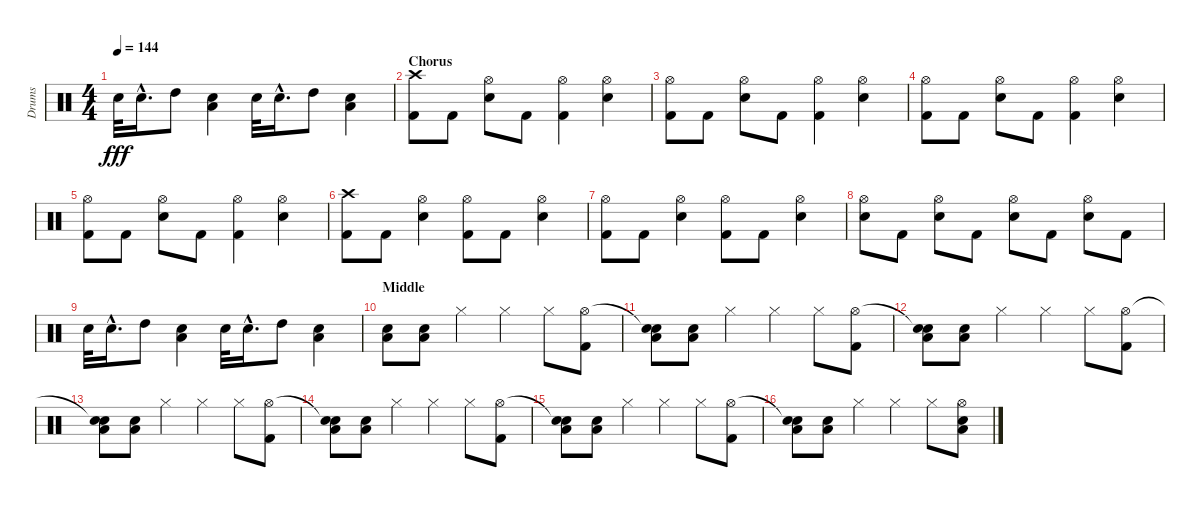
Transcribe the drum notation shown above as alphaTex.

\track ("Drums" "Drums") {instrument percussion}
\staff {score}
\articulation defaults
\ts (4 4)
\tempo 144
\clef neutral
\ks c "Snare (hit) 2".32{dy fff} "Snare (hit) 2"{hac}.16{d} "High Tom (hit)".8
("Snare (hit) 2" "Low Tom (hit)").4 "Snare (hit) 2".32 "Snare (hit) 2"{hac}.16{d} "High Tom (hit)".8 ("Snare (hit) 2" "Low Tom (hit)").4 |
\section ("" "Chorus")
("Crash high (hit)" "Kick (hit) 2").8 "Kick (hit) 2".8 ("Hi-Hat (open)" "Snare (hit) 2").8 "Kick (hit) 2".8 ("Hi-Hat (open)" "Kick (hit) 2").4 ("Hi-Hat (open)" "Snare (hit) 2").4 |
("Hi-Hat (open)" "Kick (hit) 2").8 "Kick (hit) 2".8 ("Hi-Hat (open)" "Snare (hit) 2").8 "Kick (hit) 2".8 ("Hi-Hat (open)" "Kick (hit) 2").4 ("Hi-Hat (open)" "Snare (hit) 2").4 |
("Hi-Hat (open)" "Kick (hit) 2").8 "Kick (hit) 2".8 ("Hi-Hat (open)" "Snare (hit) 2").8 "Kick (hit) 2".8 ("Hi-Hat (open)" "Kick (hit) 2").4 ("Hi-Hat (open)" "Snare (hit) 2").4 |
("Hi-Hat (open)" "Kick (hit) 2").8 "Kick (hit) 2".8 ("Hi-Hat (open)" "Snare (hit) 2").8 "Kick (hit) 2".8 ("Hi-Hat (open)" "Kick (hit) 2").4 ("Hi-Hat (open)" "Snare (hit) 2").4 |
("Crash high (hit)" "Kick (hit) 2").8 "Kick (hit) 2".8 ("Hi-Hat (open)" "Snare (hit) 2").4 ("Hi-Hat (open)" "Kick (hit) 2").8 "Kick (hit) 2".8 ("Hi-Hat (open)" "Snare (hit) 2").4 |
("Hi-Hat (open)" "Kick (hit) 2").8 "Kick (hit) 2".8 ("Hi-Hat (open)" "Snare (hit) 2").4 ("Hi-Hat (open)" "Kick (hit) 2").8 "Kick (hit) 2".8 ("Hi-Hat (open)" "Snare (hit) 2").4 |
("Hi-Hat (open)" "Snare (hit) 2").8 "Kick (hit) 2".8 ("Hi-Hat (open)" "Snare (hit) 2").8 "Kick (hit) 2".8 ("Hi-Hat (open)" "Snare (hit) 2").8 "Kick (hit) 2".8 ("Hi-Hat (open)" "Snare (hit) 2").8 "Kick (hit) 2".8 |
"Snare (hit) 2".32 "Snare (hit) 2"{hac}.16{d} "High Tom (hit)".8 ("Snare (hit) 2" "Low Tom (hit)").4 "Snare (hit) 2".32 "Snare (hit) 2"{hac}.16{d} "High Tom (hit)".8 ("Snare (hit) 2" "Low Tom (hit)").4 |
\section ("" "Middle")
("Snare (hit) 2" "Low Tom (hit)").8 ("Snare (hit) 2" "Low Tom (hit)").8 "Hi-Hat (closed)".4 "Hi-Hat (closed)".4 "Hi-Hat (closed)".8 ("Hi-Hat (open)" "Kick (hit) 2").8 |
("Snare (hit)"{t} "Snare (hit) 2" "Low Tom (hit)").8 ("Snare (hit) 2" "Low Tom (hit)").8 "Hi-Hat (closed)".4 "Hi-Hat (closed)".4 "Hi-Hat (closed)".8 ("Hi-Hat (open)" "Kick (hit) 2").8 |
("Snare (hit)"{t} "Snare (hit) 2" "Low Tom (hit)").8 ("Snare (hit) 2" "Low Tom (hit)").8 "Hi-Hat (closed)".4 "Hi-Hat (closed)".4 "Hi-Hat (closed)".8 ("Hi-Hat (open)" "Kick (hit) 2").8 |
("Snare (hit)"{t} "Snare (hit) 2" "Low Tom (hit)").8 ("Snare (hit) 2" "Low Tom (hit)").8 "Hi-Hat (closed)".4 "Hi-Hat (closed)".4 "Hi-Hat (closed)".8 ("Hi-Hat (open)" "Kick (hit) 2").8 |
("Snare (hit)"{t} "Snare (hit) 2" "Low Tom (hit)").8 ("Snare (hit) 2" "Low Tom (hit)").8 "Hi-Hat (closed)".4 "Hi-Hat (closed)".4 "Hi-Hat (closed)".8 ("Hi-Hat (open)" "Kick (hit) 2").8 |
("Snare (hit)"{t} "Snare (hit) 2" "Low Tom (hit)").8 ("Snare (hit) 2" "Low Tom (hit)").8 "Hi-Hat (closed)".4 "Hi-Hat (closed)".4 "Hi-Hat (closed)".8 ("Hi-Hat (open)" "Kick (hit) 2").8 |
("Snare (hit)"{t} "Snare (hit) 2" "Low Tom (hit)").8 ("Snare (hit) 2" "Low Tom (hit)").8 "Hi-Hat (closed)".4 "Hi-Hat (closed)".4 "Hi-Hat (closed)".8 ("Hi-Hat (open)" "Snare (hit) 2" "Low Tom (hit)").8
